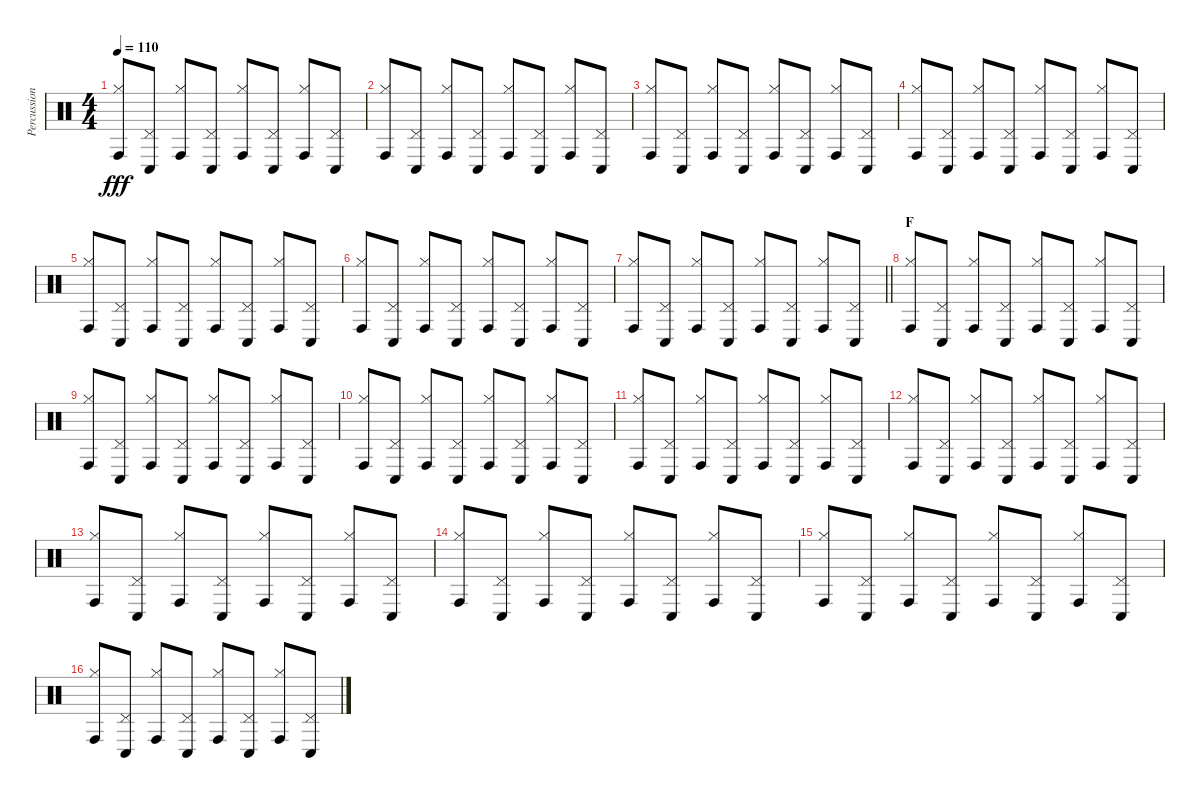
\track ("Percussion" "Percussion") {instrument percussion}
\staff {score}
\articulation defaults
\ts (4 4)
\tempo 110
\clef neutral
\ks c
("Hi-Hat (closed)" "Conga high (hit)").8{dy fff} ("Pedal Hi-Hat (hit)" "Conga low (hit)").8 ("Hi-Hat (closed)" "Conga high (hit)").8 ("Pedal Hi-Hat (hit)" "Conga low (hit)").8 ("Hi-Hat (closed)" "Conga high (hit)").8 ("Pedal Hi-Hat (hit)" "Conga low (hit)").8 ("Hi-Hat (closed)" "Conga high (hit)").8 ("Pedal Hi-Hat (hit)" "Conga low (hit)").8 |
("Hi-Hat (closed)" "Conga high (hit)").8 ("Pedal Hi-Hat (hit)" "Conga low (hit)").8 ("Hi-Hat (closed)" "Conga high (hit)").8 ("Pedal Hi-Hat (hit)" "Conga low (hit)").8 ("Hi-Hat (closed)" "Conga high (hit)").8 ("Pedal Hi-Hat (hit)" "Conga low (hit)").8 ("Hi-Hat (closed)" "Conga high (hit)").8 ("Pedal Hi-Hat (hit)" "Conga low (hit)").8 |
("Hi-Hat (closed)" "Conga high (hit)").8 ("Pedal Hi-Hat (hit)" "Conga low (hit)").8 ("Hi-Hat (closed)" "Conga high (hit)").8 ("Pedal Hi-Hat (hit)" "Conga low (hit)").8 ("Hi-Hat (closed)" "Conga high (hit)").8 ("Pedal Hi-Hat (hit)" "Conga low (hit)").8 ("Hi-Hat (closed)" "Conga high (hit)").8 ("Pedal Hi-Hat (hit)" "Conga low (hit)").8 |
("Hi-Hat (closed)" "Conga high (hit)").8 ("Pedal Hi-Hat (hit)" "Conga low (hit)").8 ("Hi-Hat (closed)" "Conga high (hit)").8 ("Pedal Hi-Hat (hit)" "Conga low (hit)").8 ("Hi-Hat (closed)" "Conga high (hit)").8 ("Pedal Hi-Hat (hit)" "Conga low (hit)").8 ("Hi-Hat (closed)" "Conga high (hit)").8 ("Pedal Hi-Hat (hit)" "Conga low (hit)").8 |
("Hi-Hat (closed)" "Conga high (hit)").8 ("Pedal Hi-Hat (hit)" "Conga low (hit)").8 ("Hi-Hat (closed)" "Conga high (hit)").8 ("Pedal Hi-Hat (hit)" "Conga low (hit)").8 ("Hi-Hat (closed)" "Conga high (hit)").8 ("Pedal Hi-Hat (hit)" "Conga low (hit)").8 ("Hi-Hat (closed)" "Conga high (hit)").8 ("Pedal Hi-Hat (hit)" "Conga low (hit)").8 |
("Hi-Hat (closed)" "Conga high (hit)").8 ("Pedal Hi-Hat (hit)" "Conga low (hit)").8 ("Hi-Hat (closed)" "Conga high (hit)").8 ("Pedal Hi-Hat (hit)" "Conga low (hit)").8 ("Hi-Hat (closed)" "Conga high (hit)").8 ("Pedal Hi-Hat (hit)" "Conga low (hit)").8 ("Hi-Hat (closed)" "Conga high (hit)").8 ("Pedal Hi-Hat (hit)" "Conga low (hit)").8 |
\barLineRight lightlight
("Hi-Hat (closed)" "Conga high (hit)").8 ("Pedal Hi-Hat (hit)" "Conga low (hit)").8 ("Hi-Hat (closed)" "Conga high (hit)").8 ("Pedal Hi-Hat (hit)" "Conga low (hit)").8 ("Hi-Hat (closed)" "Conga high (hit)").8 ("Pedal Hi-Hat (hit)" "Conga low (hit)").8 ("Hi-Hat (closed)" "Conga high (hit)").8 ("Pedal Hi-Hat (hit)" "Conga low (hit)").8 |
\section ("" "F")
("Hi-Hat (closed)" "Conga high (hit)").8 ("Pedal Hi-Hat (hit)" "Conga low (hit)").8 ("Hi-Hat (closed)" "Conga high (hit)").8 ("Pedal Hi-Hat (hit)" "Conga low (hit)").8 ("Hi-Hat (closed)" "Conga high (hit)").8 ("Pedal Hi-Hat (hit)" "Conga low (hit)").8 ("Hi-Hat (closed)" "Conga high (hit)").8 ("Pedal Hi-Hat (hit)" "Conga low (hit)").8 |
("Hi-Hat (closed)" "Conga high (hit)").8 ("Pedal Hi-Hat (hit)" "Conga low (hit)").8 ("Hi-Hat (closed)" "Conga high (hit)").8 ("Pedal Hi-Hat (hit)" "Conga low (hit)").8 ("Hi-Hat (closed)" "Conga high (hit)").8 ("Pedal Hi-Hat (hit)" "Conga low (hit)").8 ("Hi-Hat (closed)" "Conga high (hit)").8 ("Pedal Hi-Hat (hit)" "Conga low (hit)").8 |
("Hi-Hat (closed)" "Conga high (hit)").8 ("Pedal Hi-Hat (hit)" "Conga low (hit)").8 ("Hi-Hat (closed)" "Conga high (hit)").8 ("Pedal Hi-Hat (hit)" "Conga low (hit)").8 ("Hi-Hat (closed)" "Conga high (hit)").8 ("Pedal Hi-Hat (hit)" "Conga low (hit)").8 ("Hi-Hat (closed)" "Conga high (hit)").8 ("Pedal Hi-Hat (hit)" "Conga low (hit)").8 |
("Hi-Hat (closed)" "Conga high (hit)").8 ("Pedal Hi-Hat (hit)" "Conga low (hit)").8 ("Hi-Hat (closed)" "Conga high (hit)").8 ("Pedal Hi-Hat (hit)" "Conga low (hit)").8 ("Hi-Hat (closed)" "Conga high (hit)").8 ("Pedal Hi-Hat (hit)" "Conga low (hit)").8 ("Hi-Hat (closed)" "Conga high (hit)").8 ("Pedal Hi-Hat (hit)" "Conga low (hit)").8 |
("Hi-Hat (closed)" "Conga high (hit)").8 ("Pedal Hi-Hat (hit)" "Conga low (hit)").8 ("Hi-Hat (closed)" "Conga high (hit)").8 ("Pedal Hi-Hat (hit)" "Conga low (hit)").8 ("Hi-Hat (closed)" "Conga high (hit)").8 ("Pedal Hi-Hat (hit)" "Conga low (hit)").8 ("Hi-Hat (closed)" "Conga high (hit)").8 ("Pedal Hi-Hat (hit)" "Conga low (hit)").8 |
("Hi-Hat (closed)" "Conga high (hit)").8 ("Pedal Hi-Hat (hit)" "Conga low (hit)").8 ("Hi-Hat (closed)" "Conga high (hit)").8 ("Pedal Hi-Hat (hit)" "Conga low (hit)").8 ("Hi-Hat (closed)" "Conga high (hit)").8 ("Pedal Hi-Hat (hit)" "Conga low (hit)").8 ("Hi-Hat (closed)" "Conga high (hit)").8 ("Pedal Hi-Hat (hit)" "Conga low (hit)").8 |
("Hi-Hat (closed)" "Conga high (hit)").8 ("Pedal Hi-Hat (hit)" "Conga low (hit)").8 ("Hi-Hat (closed)" "Conga high (hit)").8 ("Pedal Hi-Hat (hit)" "Conga low (hit)").8 ("Hi-Hat (closed)" "Conga high (hit)").8 ("Pedal Hi-Hat (hit)" "Conga low (hit)").8 ("Hi-Hat (closed)" "Conga high (hit)").8 ("Pedal Hi-Hat (hit)" "Conga low (hit)").8 |
("Hi-Hat (closed)" "Conga high (hit)").8 ("Pedal Hi-Hat (hit)" "Conga low (hit)").8 ("Hi-Hat (closed)" "Conga high (hit)").8 ("Pedal Hi-Hat (hit)" "Conga low (hit)").8 ("Hi-Hat (closed)" "Conga high (hit)").8 ("Pedal Hi-Hat (hit)" "Conga low (hit)").8 ("Hi-Hat (closed)" "Conga high (hit)").8 ("Pedal Hi-Hat (hit)" "Conga low (hit)").8 |
("Hi-Hat (closed)" "Conga high (hit)").8 ("Pedal Hi-Hat (hit)" "Conga low (hit)").8 ("Hi-Hat (closed)" "Conga high (hit)").8 ("Pedal Hi-Hat (hit)" "Conga low (hit)").8 ("Hi-Hat (closed)" "Conga high (hit)").8 ("Pedal Hi-Hat (hit)" "Conga low (hit)").8 ("Hi-Hat (closed)" "Conga high (hit)").8 ("Pedal Hi-Hat (hit)" "Conga low (hit)").8
